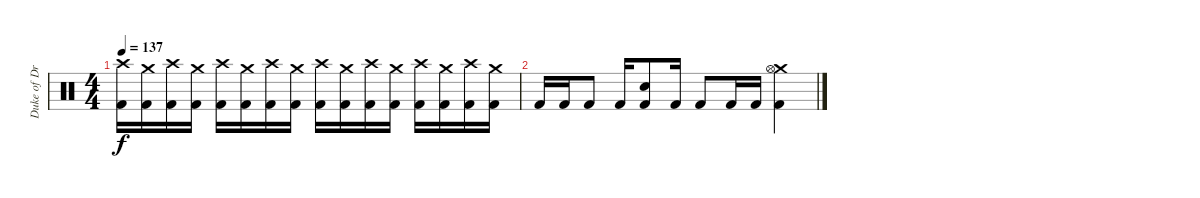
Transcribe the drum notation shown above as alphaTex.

\track ("Duke of Drumington" "Duke of Dr") {instrument percussion}
\staff {score}
\articulation defaults
\ts (4 4)
\tempo 137
\clef neutral
\ks c
("Crash high (hit)" "Kick (hit) 2").16{dy f} ("Crash medium (hit)" "Kick (hit) 2").16 ("Crash high (hit)" "Kick (hit) 2").16 ("Crash medium (hit)" "Kick (hit) 2").16 ("Crash high (hit)" "Kick (hit) 2").16 ("Crash medium (hit)" "Kick (hit) 2").16 ("Crash high (hit)" "Kick (hit) 2").16 ("Crash medium (hit)" "Kick (hit) 2").16 ("Crash high (hit)" "Kick (hit) 2").16 ("Crash medium (hit)" "Kick (hit) 2").16 ("Crash high (hit)" "Kick (hit) 2").16 ("Crash medium (hit)" "Kick (hit) 2").16 ("Crash high (hit)" "Kick (hit) 2").16 ("Crash medium (hit)" "Kick (hit) 2").16 ("Crash high (hit)" "Kick (hit) 2").16 ("Crash medium (hit)" "Kick (hit) 2").16 |
"Kick (hit) 2".16 "Kick (hit) 2".16 "Kick (hit) 2".8 "Kick (hit) 2".16 ("Snare (hit) 2" "Kick (hit) 2").8 "Kick (hit) 2".16 "Kick (hit) 2".8 "Kick (hit) 2".16 "Kick (hit) 2".16 ("Crash medium (hit)" "Hi-Hat (open)" "Kick (hit) 2").4
